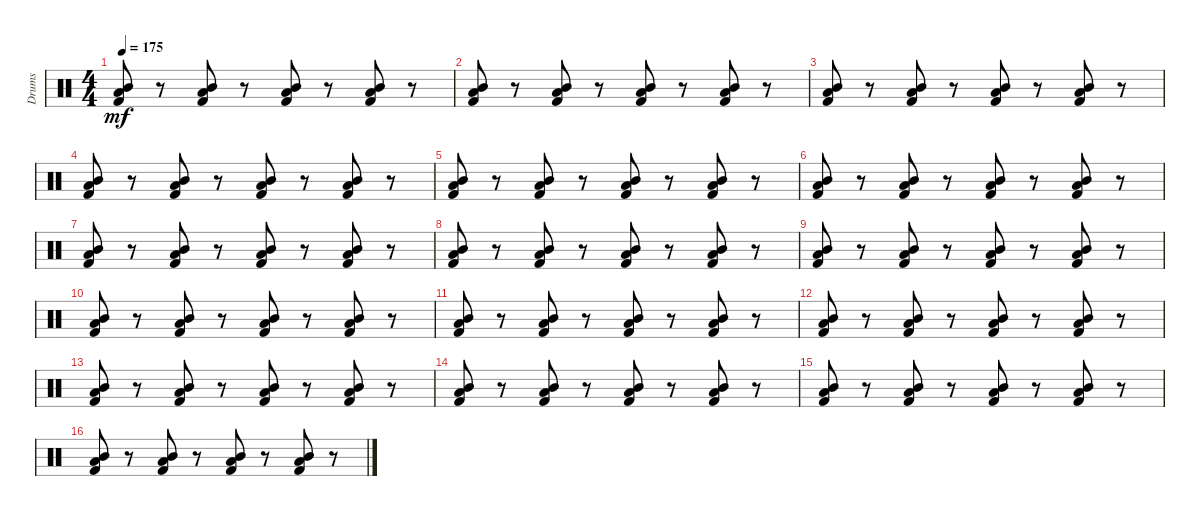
\track ("Drums" "Drums") {instrument percussion}
\staff {score}
\articulation defaults
\ts (4 4)
\tempo 175
\clef neutral
\ks c
("Mid Tom (hit)" "Low Tom (hit)" "Kick (hit) 2").8{dy mf} r.8 ("Mid Tom (hit)" "Low Tom (hit)" "Kick (hit) 2").8 r.8 ("Mid Tom (hit)" "Low Tom (hit)" "Kick (hit) 2").8 r.8 ("Mid Tom (hit)" "Low Tom (hit)" "Kick (hit) 2").8 r.8 |
("Mid Tom (hit)" "Low Tom (hit)" "Kick (hit) 2").8 r.8 ("Mid Tom (hit)" "Low Tom (hit)" "Kick (hit) 2").8 r.8 ("Mid Tom (hit)" "Low Tom (hit)" "Kick (hit) 2").8 r.8 ("Mid Tom (hit)" "Low Tom (hit)" "Kick (hit) 2").8 r.8 |
("Mid Tom (hit)" "Low Tom (hit)" "Kick (hit) 2").8 r.8 ("Mid Tom (hit)" "Low Tom (hit)" "Kick (hit) 2").8 r.8 ("Mid Tom (hit)" "Low Tom (hit)" "Kick (hit) 2").8 r.8 ("Mid Tom (hit)" "Low Tom (hit)" "Kick (hit) 2").8 r.8 |
("Mid Tom (hit)" "Low Tom (hit)" "Kick (hit) 2").8 r.8 ("Mid Tom (hit)" "Low Tom (hit)" "Kick (hit) 2").8 r.8 ("Mid Tom (hit)" "Low Tom (hit)" "Kick (hit) 2").8 r.8 ("Mid Tom (hit)" "Low Tom (hit)" "Kick (hit) 2").8 r.8 |
("Mid Tom (hit)" "Low Tom (hit)" "Kick (hit) 2").8 r.8 ("Mid Tom (hit)" "Low Tom (hit)" "Kick (hit) 2").8 r.8 ("Mid Tom (hit)" "Low Tom (hit)" "Kick (hit) 2").8 r.8 ("Mid Tom (hit)" "Low Tom (hit)" "Kick (hit) 2").8 r.8 |
("Mid Tom (hit)" "Low Tom (hit)" "Kick (hit) 2").8 r.8 ("Mid Tom (hit)" "Low Tom (hit)" "Kick (hit) 2").8 r.8 ("Mid Tom (hit)" "Low Tom (hit)" "Kick (hit) 2").8 r.8 ("Mid Tom (hit)" "Low Tom (hit)" "Kick (hit) 2").8 r.8 |
("Mid Tom (hit)" "Low Tom (hit)" "Kick (hit) 2").8 r.8 ("Mid Tom (hit)" "Low Tom (hit)" "Kick (hit) 2").8 r.8 ("Mid Tom (hit)" "Low Tom (hit)" "Kick (hit) 2").8 r.8 ("Mid Tom (hit)" "Low Tom (hit)" "Kick (hit) 2").8 r.8 |
("Mid Tom (hit)" "Low Tom (hit)" "Kick (hit) 2").8 r.8 ("Mid Tom (hit)" "Low Tom (hit)" "Kick (hit) 2").8 r.8 ("Mid Tom (hit)" "Low Tom (hit)" "Kick (hit) 2").8 r.8 ("Mid Tom (hit)" "Low Tom (hit)" "Kick (hit) 2").8 r.8 |
("Mid Tom (hit)" "Low Tom (hit)" "Kick (hit) 2").8 r.8 ("Mid Tom (hit)" "Low Tom (hit)" "Kick (hit) 2").8 r.8 ("Mid Tom (hit)" "Low Tom (hit)" "Kick (hit) 2").8 r.8 ("Mid Tom (hit)" "Low Tom (hit)" "Kick (hit) 2").8 r.8 |
("Mid Tom (hit)" "Low Tom (hit)" "Kick (hit) 2").8 r.8 ("Mid Tom (hit)" "Low Tom (hit)" "Kick (hit) 2").8 r.8 ("Mid Tom (hit)" "Low Tom (hit)" "Kick (hit) 2").8 r.8 ("Mid Tom (hit)" "Low Tom (hit)" "Kick (hit) 2").8 r.8 |
("Mid Tom (hit)" "Low Tom (hit)" "Kick (hit) 2").8 r.8 ("Mid Tom (hit)" "Low Tom (hit)" "Kick (hit) 2").8 r.8 ("Mid Tom (hit)" "Low Tom (hit)" "Kick (hit) 2").8 r.8 ("Mid Tom (hit)" "Low Tom (hit)" "Kick (hit) 2").8 r.8 |
("Mid Tom (hit)" "Low Tom (hit)" "Kick (hit) 2").8 r.8 ("Mid Tom (hit)" "Low Tom (hit)" "Kick (hit) 2").8 r.8 ("Mid Tom (hit)" "Low Tom (hit)" "Kick (hit) 2").8 r.8 ("Mid Tom (hit)" "Low Tom (hit)" "Kick (hit) 2").8 r.8 |
("Mid Tom (hit)" "Low Tom (hit)" "Kick (hit) 2").8 r.8 ("Mid Tom (hit)" "Low Tom (hit)" "Kick (hit) 2").8 r.8 ("Mid Tom (hit)" "Low Tom (hit)" "Kick (hit) 2").8 r.8 ("Mid Tom (hit)" "Low Tom (hit)" "Kick (hit) 2").8 r.8 |
("Mid Tom (hit)" "Low Tom (hit)" "Kick (hit) 2").8 r.8 ("Mid Tom (hit)" "Low Tom (hit)" "Kick (hit) 2").8 r.8 ("Mid Tom (hit)" "Low Tom (hit)" "Kick (hit) 2").8 r.8 ("Mid Tom (hit)" "Low Tom (hit)" "Kick (hit) 2").8 r.8 |
("Mid Tom (hit)" "Low Tom (hit)" "Kick (hit) 2").8 r.8 ("Mid Tom (hit)" "Low Tom (hit)" "Kick (hit) 2").8 r.8 ("Mid Tom (hit)" "Low Tom (hit)" "Kick (hit) 2").8 r.8 ("Mid Tom (hit)" "Low Tom (hit)" "Kick (hit) 2").8 r.8 |
("Mid Tom (hit)" "Low Tom (hit)" "Kick (hit) 2").8 r.8 ("Mid Tom (hit)" "Low Tom (hit)" "Kick (hit) 2").8 r.8 ("Mid Tom (hit)" "Low Tom (hit)" "Kick (hit) 2").8 r.8 ("Mid Tom (hit)" "Low Tom (hit)" "Kick (hit) 2").8 r.8
